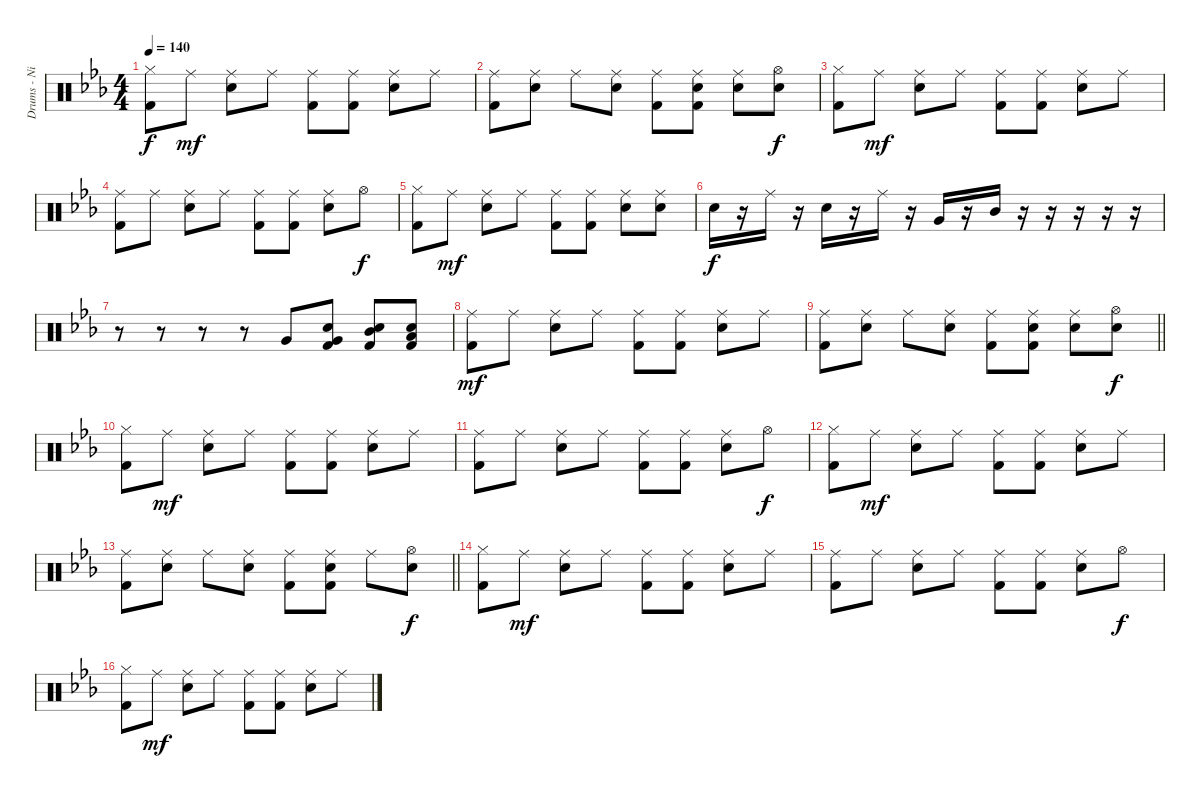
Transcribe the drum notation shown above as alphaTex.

\track ("Drums - Nigel Olsen" "Drums - Ni") {instrument percussion}
\staff {score}
\articulation defaults
\ts (4 4)
\tempo 140
\clef neutral
\ks cminor
("Hi-Hat (closed)" "Kick (hit) 2").8{dy f} "Ride (middle)".8{dy mf} ("Ride (middle)" "Snare (hit) 2").8 "Ride (middle)".8 ("Ride (middle)" "Kick (hit) 2").8 ("Ride (middle)" "Kick (hit) 2").8 ("Ride (middle)" "Snare (hit) 2").8 "Ride (middle)".8 |
("Ride (middle)" "Kick (hit) 2").8 ("Ride (middle)" "Snare (hit) 2").8 "Ride (middle)".8 ("Ride (middle)" "Snare (hit) 2").8 ("Ride (middle)" "Kick (hit) 2").8 ("Ride (middle)" "Snare (hit) 2" "Kick (hit) 2").8 ("Ride (middle)" "Snare (hit) 2").8 ("Hi-Hat (open)" "Snare (hit) 2").8{dy f} |
("Hi-Hat (closed)" "Kick (hit) 2").8 "Ride (middle)".8{dy mf} ("Ride (middle)" "Snare (hit) 2").8 "Ride (middle)".8 ("Ride (middle)" "Kick (hit) 2").8 ("Ride (middle)" "Kick (hit) 2").8 ("Ride (middle)" "Snare (hit) 2").8 "Ride (middle)".8 |
("Ride (middle)" "Kick (hit) 2").8 "Ride (middle)".8 ("Ride (middle)" "Snare (hit) 2").8 "Ride (middle)".8 ("Ride (middle)" "Kick (hit) 2").8 ("Ride (middle)" "Kick (hit) 2").8 ("Ride (middle)" "Snare (hit) 2").8 "Hi-Hat (open)".8{dy f} |
("Hi-Hat (closed)" "Kick (hit) 2").8 "Ride (middle)".8{dy mf} ("Ride (middle)" "Snare (hit) 2").8 "Ride (middle)".8 ("Ride (middle)" "Kick (hit) 2").8 ("Ride (middle)" "Kick (hit) 2").8 ("Ride (middle)" "Snare (hit) 2").8 ("Ride (middle)" "Snare (hit) 2").8 |
"Snare (hit) 2".16{dy f} r.16 "Ride (middle)".16 r.16 "Snare (hit) 2".16 r.16 "Ride (middle)".16 r.16 "Very Low Tom (hit)".16 r.16 "Mid Tom (hit)".16 r.16 r.16 r.16 r.16 r.16 |
r.8 r.8 r.8 r.8 "Very Low Tom (hit)".8 ("Very Low Tom (hit)" "Snare (hit) 2" "Kick (hit) 2").8 ("Mid Tom (hit)" "Snare (hit) 2" "Kick (hit) 2").8 ("Low Tom (hit)" "Snare (hit) 2" "Kick (hit) 2").8 |
("Ride (middle)" "Kick (hit) 2").8{dy mf} "Ride (middle)".8 ("Ride (middle)" "Snare (hit) 2").8 "Ride (middle)".8 ("Ride (middle)" "Kick (hit) 2").8 ("Ride (middle)" "Kick (hit) 2").8 ("Ride (middle)" "Snare (hit) 2").8 "Ride (middle)".8 |
\barLineRight lightlight
("Ride (middle)" "Kick (hit) 2").8 ("Ride (middle)" "Snare (hit) 2").8 "Ride (middle)".8 ("Ride (middle)" "Snare (hit) 2").8 ("Ride (middle)" "Kick (hit) 2").8 ("Ride (middle)" "Snare (hit) 2" "Kick (hit) 2").8 ("Ride (middle)" "Snare (hit) 2").8 ("Hi-Hat (open)" "Snare (hit) 2").8{dy f} |
("Hi-Hat (closed)" "Kick (hit) 2").8 "Ride (middle)".8{dy mf} ("Ride (middle)" "Snare (hit) 2").8 "Ride (middle)".8 ("Ride (middle)" "Kick (hit) 2").8 ("Ride (middle)" "Kick (hit) 2").8 ("Ride (middle)" "Snare (hit) 2").8 "Ride (middle)".8 |
("Ride (middle)" "Kick (hit) 2").8 "Ride (middle)".8 ("Ride (middle)" "Snare (hit) 2").8 "Ride (middle)".8 ("Ride (middle)" "Kick (hit) 2").8 ("Ride (middle)" "Kick (hit) 2").8 ("Ride (middle)" "Snare (hit) 2").8 "Hi-Hat (open)".8{dy f} |
("Hi-Hat (closed)" "Kick (hit) 2").8 "Ride (middle)".8{dy mf} ("Ride (middle)" "Snare (hit) 2").8 "Ride (middle)".8 ("Ride (middle)" "Kick (hit) 2").8 ("Ride (middle)" "Kick (hit) 2").8 ("Ride (middle)" "Snare (hit) 2").8 "Ride (middle)".8 |
\barLineRight lightlight
("Ride (middle)" "Kick (hit) 2").8 ("Ride (middle)" "Snare (hit) 2").8 "Ride (middle)".8 ("Ride (middle)" "Snare (hit) 2").8 ("Ride (middle)" "Kick (hit) 2").8 ("Ride (middle)" "Snare (hit) 2" "Kick (hit) 2").8 "Ride (middle)".8 ("Hi-Hat (open)" "Snare (hit) 2").8{dy f} |
("Hi-Hat (closed)" "Kick (hit) 2").8 "Ride (middle)".8{dy mf} ("Ride (middle)" "Snare (hit) 2").8 "Ride (middle)".8 ("Ride (middle)" "Kick (hit) 2").8 ("Ride (middle)" "Kick (hit) 2").8 ("Ride (middle)" "Snare (hit) 2").8 "Ride (middle)".8 |
("Ride (middle)" "Kick (hit) 2").8 "Ride (middle)".8 ("Ride (middle)" "Snare (hit) 2").8 "Ride (middle)".8 ("Ride (middle)" "Kick (hit) 2").8 ("Ride (middle)" "Kick (hit) 2").8 ("Ride (middle)" "Snare (hit) 2").8 "Hi-Hat (open)".8{dy f} |
("Hi-Hat (closed)" "Kick (hit) 2").8 "Ride (middle)".8{dy mf} ("Ride (middle)" "Snare (hit) 2").8 "Ride (middle)".8 ("Ride (middle)" "Kick (hit) 2").8 ("Ride (middle)" "Kick (hit) 2").8 ("Ride (middle)" "Snare (hit) 2").8 "Ride (middle)".8
